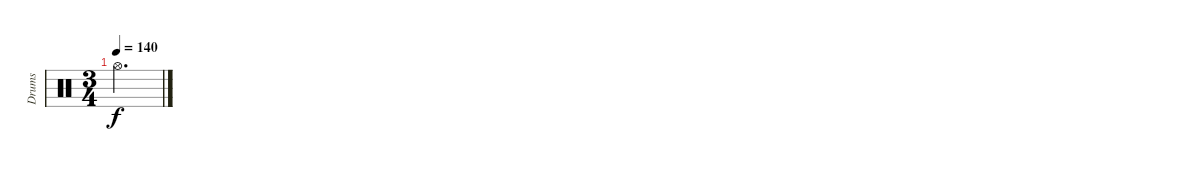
\track ("Drums" "Drums") {instrument percussion}
\staff {score}
\articulation defaults
\ts (3 4)
\tempo 140
\clef neutral
\ks c "Hi-Hat (open)".2{d dy f}
